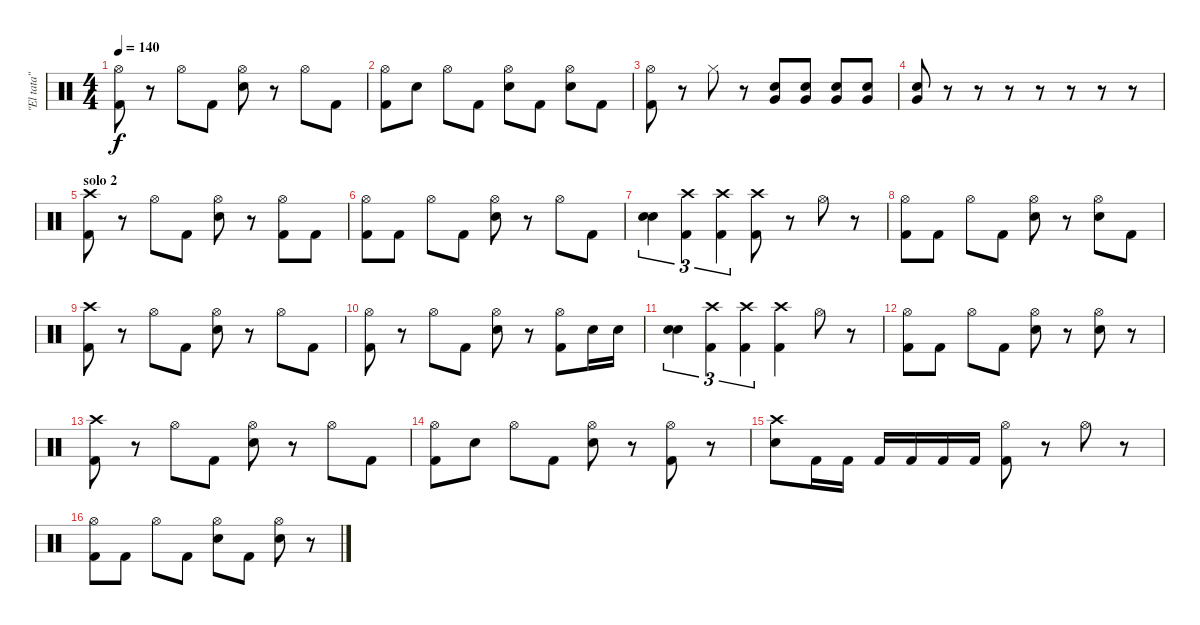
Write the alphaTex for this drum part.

\track ("\"El tata\"" "\"El tata\"") {instrument percussion}
\staff {score}
\articulation defaults
\ts (4 4)
\tempo 140
\clef neutral
\ks c
("Hi-Hat (open)" "Kick (hit) 2").8{dy f} r.8 "Hi-Hat (open)".8 "Kick (hit) 2".8 ("Hi-Hat (open)" "Electric Snare (hit)").8 r.8 "Hi-Hat (open)".8 "Kick (hit) 2".8 |
("Hi-Hat (open)" "Kick (hit) 2").8 "Electric Snare (hit)".8 "Hi-Hat (open)".8 "Kick (hit) 2".8 ("Hi-Hat (open)" "Electric Snare (hit)").8 "Kick (hit) 2".8 ("Hi-Hat (open)" "Electric Snare (hit)").8 "Kick (hit) 2".8 |
("Hi-Hat (open)" "Kick (hit) 2").8 r.8 "Hi-Hat (closed)".8 r.8 ("Very Low Tom (hit)" "Electric Snare (hit)").8 ("Very Low Tom (hit)" "Electric Snare (hit)").8 ("Very Low Tom (hit)" "Electric Snare (hit)").8 ("Very Low Tom (hit)" "Electric Snare (hit)").8 |
("Very Low Tom (hit)" "Electric Snare (hit)").8 r.8 r.8 r.8 r.8 r.8 r.8 r.8 |
\section ("" "solo 2")
("Crash high (hit)" "Kick (hit) 2").8 r.8 "Hi-Hat (open)".8 "Kick (hit) 2".8 ("Hi-Hat (open)" "Electric Snare (hit)").8 r.8 ("Hi-Hat (open)" "Kick (hit) 2").8 "Kick (hit) 2".8 |
("Hi-Hat (open)" "Kick (hit) 2").8 "Kick (hit) 2".8 "Hi-Hat (open)".8 "Kick (hit) 2".8 ("Hi-Hat (open)" "Electric Snare (hit)").8 r.8 "Hi-Hat (open)".8 "Kick (hit) 2".8 |
("Electric Snare (hit)" "Electric Snare (hit)").4{tu (3 2)} ("Crash high (hit)" "Kick (hit) 2").4{tu (3 2)} ("Crash high (hit)" "Kick (hit) 2").4{tu (3 2)} ("Crash high (hit)" "Kick (hit) 2").8 r.8 "Hi-Hat (open)".8 r.8 |
("Hi-Hat (open)" "Kick (hit) 2").8 "Kick (hit) 2".8 "Hi-Hat (open)".8 "Kick (hit) 2".8 ("Hi-Hat (open)" "Electric Snare (hit)").8 r.8 ("Hi-Hat (open)" "Electric Snare (hit)").8 "Kick (hit) 2".8 |
("Crash high (hit)" "Kick (hit) 2").8 r.8 "Hi-Hat (open)".8 "Kick (hit) 2".8 ("Hi-Hat (open)" "Electric Snare (hit)").8 r.8 "Hi-Hat (open)".8 "Kick (hit) 2".8 |
("Hi-Hat (open)" "Kick (hit) 2").8 r.8 "Hi-Hat (open)".8 "Kick (hit) 2".8 ("Hi-Hat (open)" "Electric Snare (hit)").8 r.8 ("Hi-Hat (open)" "Kick (hit) 2").8 "Electric Snare (hit)".16 "Electric Snare (hit)".16 |
("Electric Snare (hit)" "Electric Snare (hit)").4{tu (3 2)} ("Crash high (hit)" "Kick (hit) 2").4{tu (3 2)} ("Crash high (hit)" "Kick (hit) 2").4{tu (3 2)} ("Crash high (hit)" "Kick (hit) 2").4 "Hi-Hat (open)".8 r.8 |
("Hi-Hat (open)" "Kick (hit) 2").8 "Kick (hit) 2".8 "Hi-Hat (open)".8 "Kick (hit) 2".8 ("Hi-Hat (open)" "Electric Snare (hit)").8 r.8 ("Hi-Hat (open)" "Electric Snare (hit)").8 r.8 |
("Crash high (hit)" "Kick (hit) 2").8 r.8 "Hi-Hat (open)".8 "Kick (hit) 2".8 ("Hi-Hat (open)" "Electric Snare (hit)").8 r.8 "Hi-Hat (open)".8 "Kick (hit) 2".8 |
("Hi-Hat (open)" "Kick (hit) 2").8 "Electric Snare (hit)".8 "Hi-Hat (open)".8 "Kick (hit) 2".8 ("Hi-Hat (open)" "Electric Snare (hit)").8 r.8 ("Hi-Hat (open)" "Kick (hit) 2").8 r.8 |
("Crash high (hit)" "Electric Snare (hit)").8 "Kick (hit) 2".16 "Kick (hit) 2".16 "Kick (hit) 2".16 "Kick (hit) 2".16 "Kick (hit) 2".16 "Kick (hit) 2".16 ("Hi-Hat (open)" "Kick (hit) 2").8 r.8 "Hi-Hat (open)".8 r.8 |
("Hi-Hat (open)" "Kick (hit) 2").8 "Kick (hit) 2".8 "Hi-Hat (open)".8 "Kick (hit) 2".8 ("Hi-Hat (open)" "Electric Snare (hit)").8 "Kick (hit) 2".8 ("Hi-Hat (open)" "Electric Snare (hit)").8 r.8
